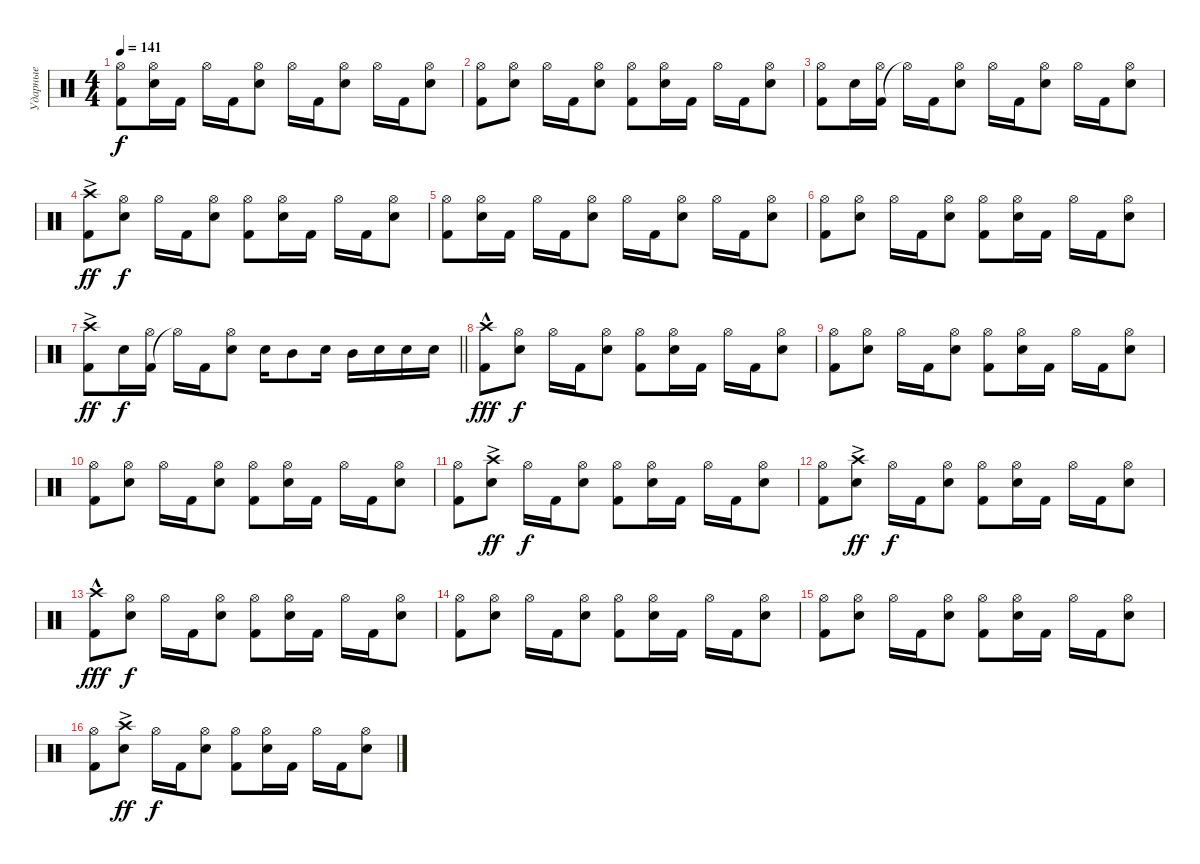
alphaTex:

\track ("Ударные" "Ударные") {instrument percussion}
\staff
\articulation defaults
\ts (4 4)
\tempo 141
\clef neutral
\ks c
("Kick (hit) 2" "Hi-Hat (open)").8{dy f} ("Snare (hit) 2" "Hi-Hat (open)").16 "Kick (hit) 2".16 "Hi-Hat (open)".16 "Kick (hit) 2".16 ("Snare (hit) 2" "Hi-Hat (open)").8 "Hi-Hat (open)".16 "Kick (hit) 2".16 ("Snare (hit) 2" "Hi-Hat (open)").8 "Hi-Hat (open)".16 "Kick (hit) 2".16 ("Snare (hit) 2" "Hi-Hat (open)").8 |
("Kick (hit) 2" "Hi-Hat (open)").8 ("Snare (hit) 2" "Hi-Hat (open)").8 "Hi-Hat (open)".16 "Kick (hit) 2".16 ("Snare (hit) 2" "Hi-Hat (open)").8 ("Kick (hit) 2" "Hi-Hat (open)").8 ("Snare (hit) 2" "Hi-Hat (open)").16 "Kick (hit) 2".16 "Hi-Hat (open)".16 "Kick (hit) 2".16 ("Snare (hit) 2" "Hi-Hat (open)").8 |
("Kick (hit) 2" "Hi-Hat (open)").8 "Snare (hit) 2".16 ("Kick (hit) 2" "Hi-Hat (open)").16 "Hi-Hat (open)"{t}.16 "Kick (hit) 2".16 ("Snare (hit) 2" "Hi-Hat (open)").8 "Hi-Hat (open)".16 "Kick (hit) 2".16 ("Snare (hit) 2" "Hi-Hat (open)").8 "Hi-Hat (open)".16 "Kick (hit) 2".16 ("Snare (hit) 2" "Hi-Hat (open)").8 |
("Kick (hit) 2" "Crash high (hit)"{ac}).8{dy ff} ("Snare (hit) 2" "Hi-Hat (open)").8{dy f} "Hi-Hat (open)".16 "Kick (hit) 2".16 ("Snare (hit) 2" "Hi-Hat (open)").8 ("Kick (hit) 2" "Hi-Hat (open)").8 ("Snare (hit) 2" "Hi-Hat (open)").16 "Kick (hit) 2".16 "Hi-Hat (open)".16 "Kick (hit) 2".16 ("Snare (hit) 2" "Hi-Hat (open)").8 |
("Kick (hit) 2" "Hi-Hat (open)").8 ("Snare (hit) 2" "Hi-Hat (open)").16 "Kick (hit) 2".16 "Hi-Hat (open)".16 "Kick (hit) 2".16 ("Snare (hit) 2" "Hi-Hat (open)").8 "Hi-Hat (open)".16 "Kick (hit) 2".16 ("Snare (hit) 2" "Hi-Hat (open)").8 "Hi-Hat (open)".16 "Kick (hit) 2".16 ("Snare (hit) 2" "Hi-Hat (open)").8 |
("Kick (hit) 2" "Hi-Hat (open)").8 ("Snare (hit) 2" "Hi-Hat (open)").8 "Hi-Hat (open)".16 "Kick (hit) 2".16 ("Snare (hit) 2" "Hi-Hat (open)").8 ("Kick (hit) 2" "Hi-Hat (open)").8 ("Snare (hit) 2" "Hi-Hat (open)").16 "Kick (hit) 2".16 "Hi-Hat (open)".16 "Kick (hit) 2".16 ("Snare (hit) 2" "Hi-Hat (open)").8 |
\barLineRight lightlight
("Kick (hit) 2" "Crash high (hit)"{ac}).8{dy ff} "Snare (hit) 2".16{dy f} ("Kick (hit) 2" "Hi-Hat (open)").16 "Hi-Hat (open)"{t}.16 "Kick (hit) 2".16 ("Snare (hit) 2" "Hi-Hat (open)").8 "Snare (hit) 2".16 "Mid Tom (hit)".8 "Snare (hit) 2".16 "Mid Tom (hit)".16 "Snare (hit) 2".16 "Snare (hit) 2".16 "Snare (hit) 2".16 |
("Kick (hit) 2" "Crash high (hit)"{hac}).8{dy fff} ("Snare (hit) 2" "Hi-Hat (open)").8{dy f} "Hi-Hat (open)".16 "Kick (hit) 2".16 ("Snare (hit) 2" "Hi-Hat (open)").8 ("Kick (hit) 2" "Hi-Hat (open)").8 ("Snare (hit) 2" "Hi-Hat (open)").16 "Kick (hit) 2".16 "Hi-Hat (open)".16 "Kick (hit) 2".16 ("Snare (hit) 2" "Hi-Hat (open)").8 |
("Kick (hit) 2" "Hi-Hat (open)").8 ("Snare (hit) 2" "Hi-Hat (open)").8 "Hi-Hat (open)".16 "Kick (hit) 2".16 ("Snare (hit) 2" "Hi-Hat (open)").8 ("Kick (hit) 2" "Hi-Hat (open)").8 ("Snare (hit) 2" "Hi-Hat (open)").16 "Kick (hit) 2".16 "Hi-Hat (open)".16 "Kick (hit) 2".16 ("Snare (hit) 2" "Hi-Hat (open)").8 |
("Kick (hit) 2" "Hi-Hat (open)").8 ("Snare (hit) 2" "Hi-Hat (open)").8 "Hi-Hat (open)".16 "Kick (hit) 2".16 ("Snare (hit) 2" "Hi-Hat (open)").8 ("Kick (hit) 2" "Hi-Hat (open)").8 ("Snare (hit) 2" "Hi-Hat (open)").16 "Kick (hit) 2".16 "Hi-Hat (open)".16 "Kick (hit) 2".16 ("Snare (hit) 2" "Hi-Hat (open)").8 |
("Kick (hit) 2" "Hi-Hat (open)").8 ("Snare (hit) 2" "Crash high (hit)"{ac}).8{dy ff} "Hi-Hat (open)".16{dy f} "Kick (hit) 2".16 ("Snare (hit) 2" "Hi-Hat (open)").8 ("Kick (hit) 2" "Hi-Hat (open)").8 ("Snare (hit) 2" "Hi-Hat (open)").16 "Kick (hit) 2".16 "Hi-Hat (open)".16 "Kick (hit) 2".16 ("Snare (hit) 2" "Hi-Hat (open)").8 |
("Kick (hit) 2" "Hi-Hat (open)").8 ("Snare (hit) 2" "Crash high (hit)"{ac}).8{dy ff} "Hi-Hat (open)".16{dy f} "Kick (hit) 2".16 ("Snare (hit) 2" "Hi-Hat (open)").8 ("Kick (hit) 2" "Hi-Hat (open)").8 ("Snare (hit) 2" "Hi-Hat (open)").16 "Kick (hit) 2".16 "Hi-Hat (open)".16 "Kick (hit) 2".16 ("Snare (hit) 2" "Hi-Hat (open)").8 |
("Kick (hit) 2" "Crash high (hit)"{hac}).8{dy fff} ("Snare (hit) 2" "Hi-Hat (open)").8{dy f} "Hi-Hat (open)".16 "Kick (hit) 2".16 ("Snare (hit) 2" "Hi-Hat (open)").8 ("Kick (hit) 2" "Hi-Hat (open)").8 ("Snare (hit) 2" "Hi-Hat (open)").16 "Kick (hit) 2".16 "Hi-Hat (open)".16 "Kick (hit) 2".16 ("Snare (hit) 2" "Hi-Hat (open)").8 |
("Kick (hit) 2" "Hi-Hat (open)").8 ("Snare (hit) 2" "Hi-Hat (open)").8 "Hi-Hat (open)".16 "Kick (hit) 2".16 ("Snare (hit) 2" "Hi-Hat (open)").8 ("Kick (hit) 2" "Hi-Hat (open)").8 ("Snare (hit) 2" "Hi-Hat (open)").16 "Kick (hit) 2".16 "Hi-Hat (open)".16 "Kick (hit) 2".16 ("Snare (hit) 2" "Hi-Hat (open)").8 |
("Kick (hit) 2" "Hi-Hat (open)").8 ("Snare (hit) 2" "Hi-Hat (open)").8 "Hi-Hat (open)".16 "Kick (hit) 2".16 ("Snare (hit) 2" "Hi-Hat (open)").8 ("Kick (hit) 2" "Hi-Hat (open)").8 ("Snare (hit) 2" "Hi-Hat (open)").16 "Kick (hit) 2".16 "Hi-Hat (open)".16 "Kick (hit) 2".16 ("Snare (hit) 2" "Hi-Hat (open)").8 |
("Kick (hit) 2" "Hi-Hat (open)").8 ("Snare (hit) 2" "Crash high (hit)"{ac}).8{dy ff} "Hi-Hat (open)".16{dy f} "Kick (hit) 2".16 ("Snare (hit) 2" "Hi-Hat (open)").8 ("Kick (hit) 2" "Hi-Hat (open)").8 ("Snare (hit) 2" "Hi-Hat (open)").16 "Kick (hit) 2".16 "Hi-Hat (open)".16 "Kick (hit) 2".16 ("Snare (hit) 2" "Hi-Hat (open)").8
